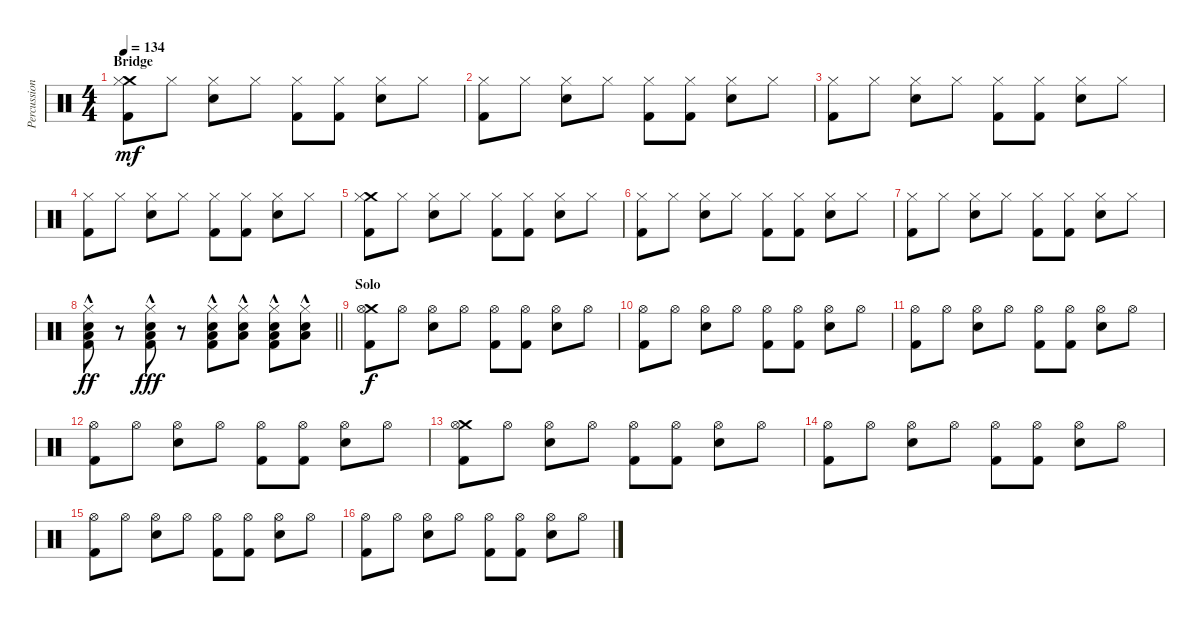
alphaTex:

\track ("Percussion" "Percussion") {instrument percussion}
\staff {score}
\articulation defaults
\ts (4 4)
\section ("" "Bridge")
\tempo 134
\clef neutral
\ks c
("Crash medium (hit)" "Hi-Hat (closed)" "Kick (hit) 2").8{dy mf} "Hi-Hat (closed)".8 ("Hi-Hat (closed)" "Snare (hit) 2").8 "Hi-Hat (closed)".8 ("Hi-Hat (closed)" "Kick (hit) 2").8 ("Hi-Hat (closed)" "Kick (hit) 2").8 ("Hi-Hat (closed)" "Snare (hit) 2").8 "Hi-Hat (closed)".8 |
("Hi-Hat (closed)" "Kick (hit) 2").8 "Hi-Hat (closed)".8 ("Hi-Hat (closed)" "Snare (hit) 2").8 "Hi-Hat (closed)".8 ("Hi-Hat (closed)" "Kick (hit) 2").8 ("Hi-Hat (closed)" "Kick (hit) 2").8 ("Hi-Hat (closed)" "Snare (hit) 2").8 "Hi-Hat (closed)".8 |
("Hi-Hat (closed)" "Kick (hit) 2").8 "Hi-Hat (closed)".8 ("Hi-Hat (closed)" "Snare (hit) 2").8 "Hi-Hat (closed)".8 ("Hi-Hat (closed)" "Kick (hit) 2").8 ("Hi-Hat (closed)" "Kick (hit) 2").8 ("Hi-Hat (closed)" "Snare (hit) 2").8 "Hi-Hat (closed)".8 |
("Hi-Hat (closed)" "Kick (hit) 2").8 "Hi-Hat (closed)".8 ("Hi-Hat (closed)" "Snare (hit) 2").8 "Hi-Hat (closed)".8 ("Hi-Hat (closed)" "Kick (hit) 2").8 ("Hi-Hat (closed)" "Kick (hit) 2").8 ("Hi-Hat (closed)" "Snare (hit) 2").8 "Hi-Hat (closed)".8 |
("Crash medium (hit)" "Hi-Hat (closed)" "Kick (hit) 2").8 "Hi-Hat (closed)".8 ("Hi-Hat (closed)" "Snare (hit) 2").8 "Hi-Hat (closed)".8 ("Hi-Hat (closed)" "Kick (hit) 2").8 ("Hi-Hat (closed)" "Kick (hit) 2").8 ("Hi-Hat (closed)" "Snare (hit) 2").8 "Hi-Hat (closed)".8 |
("Hi-Hat (closed)" "Kick (hit) 2").8 "Hi-Hat (closed)".8 ("Hi-Hat (closed)" "Snare (hit) 2").8 "Hi-Hat (closed)".8 ("Hi-Hat (closed)" "Kick (hit) 2").8 ("Hi-Hat (closed)" "Kick (hit) 2").8 ("Hi-Hat (closed)" "Snare (hit) 2").8 "Hi-Hat (closed)".8 |
("Hi-Hat (closed)" "Kick (hit) 2").8 "Hi-Hat (closed)".8 ("Hi-Hat (closed)" "Snare (hit) 2").8 "Hi-Hat (closed)".8 ("Hi-Hat (closed)" "Kick (hit) 2").8 ("Hi-Hat (closed)" "Kick (hit) 2").8 ("Hi-Hat (closed)" "Snare (hit) 2").8 "Hi-Hat (closed)".8 |
\barLineRight lightlight
("Hi-Hat (closed)"{hac} "Snare (hit) 2"{hac} "Low Floor Tom (hit)"{hac} "Kick (hit) 2"{hac}).8{dy ff} r.8 ("Hi-Hat (closed)"{hac} "Snare (hit) 2"{hac} "Low Floor Tom (hit)"{hac} "Kick (hit) 2"{hac}).8{dy fff} r.8 ("Hi-Hat (closed)"{hac} "Snare (hit) 2"{hac} "Low Floor Tom (hit)"{hac} "Kick (hit) 2"{hac}).8 ("Hi-Hat (closed)"{hac} "Snare (hit) 2"{hac} "Low Floor Tom (hit)"{hac}).8 ("Hi-Hat (closed)"{hac} "Snare (hit) 2"{hac} "Low Floor Tom (hit)"{hac} "Kick (hit) 2"{hac}).8 ("Hi-Hat (closed)"{hac} "Snare (hit) 2"{hac} "Low Floor Tom (hit)"{hac}).8 |
\section ("" "Solo")
("Crash medium (hit)" "Hi-Hat (open)" "Kick (hit) 2").8{dy f} "Hi-Hat (open)".8 ("Hi-Hat (open)" "Snare (hit) 2").8 "Hi-Hat (open)".8 ("Hi-Hat (open)" "Kick (hit) 2").8 ("Hi-Hat (open)" "Kick (hit) 2").8 ("Hi-Hat (open)" "Snare (hit) 2").8 "Hi-Hat (open)".8 |
("Hi-Hat (open)" "Kick (hit) 2").8 "Hi-Hat (open)".8 ("Hi-Hat (open)" "Snare (hit) 2").8 "Hi-Hat (open)".8 ("Hi-Hat (open)" "Kick (hit) 2").8 ("Hi-Hat (open)" "Kick (hit) 2").8 ("Hi-Hat (open)" "Snare (hit) 2").8 "Hi-Hat (open)".8 |
("Hi-Hat (open)" "Kick (hit) 2").8 "Hi-Hat (open)".8 ("Hi-Hat (open)" "Snare (hit) 2").8 "Hi-Hat (open)".8 ("Hi-Hat (open)" "Kick (hit) 2").8 ("Hi-Hat (open)" "Kick (hit) 2").8 ("Hi-Hat (open)" "Snare (hit) 2").8 "Hi-Hat (open)".8 |
("Hi-Hat (open)" "Kick (hit) 2").8 "Hi-Hat (open)".8 ("Hi-Hat (open)" "Snare (hit) 2").8 "Hi-Hat (open)".8 ("Hi-Hat (open)" "Kick (hit) 2").8 ("Hi-Hat (open)" "Kick (hit) 2").8 ("Hi-Hat (open)" "Snare (hit) 2").8 "Hi-Hat (open)".8 |
("Crash medium (hit)" "Hi-Hat (open)" "Kick (hit) 2").8 "Hi-Hat (open)".8 ("Hi-Hat (open)" "Snare (hit) 2").8 "Hi-Hat (open)".8 ("Hi-Hat (open)" "Kick (hit) 2").8 ("Hi-Hat (open)" "Kick (hit) 2").8 ("Hi-Hat (open)" "Snare (hit) 2").8 "Hi-Hat (open)".8 |
("Hi-Hat (open)" "Kick (hit) 2").8 "Hi-Hat (open)".8 ("Hi-Hat (open)" "Snare (hit) 2").8 "Hi-Hat (open)".8 ("Hi-Hat (open)" "Kick (hit) 2").8 ("Hi-Hat (open)" "Kick (hit) 2").8 ("Hi-Hat (open)" "Snare (hit) 2").8 "Hi-Hat (open)".8 |
("Hi-Hat (open)" "Kick (hit) 2").8 "Hi-Hat (open)".8 ("Hi-Hat (open)" "Snare (hit) 2").8 "Hi-Hat (open)".8 ("Hi-Hat (open)" "Kick (hit) 2").8 ("Hi-Hat (open)" "Kick (hit) 2").8 ("Hi-Hat (open)" "Snare (hit) 2").8 "Hi-Hat (open)".8 |
("Hi-Hat (open)" "Kick (hit) 2").8 "Hi-Hat (open)".8 ("Hi-Hat (open)" "Snare (hit) 2").8 "Hi-Hat (open)".8 ("Hi-Hat (open)" "Kick (hit) 2").8 ("Hi-Hat (open)" "Kick (hit) 2").8 ("Hi-Hat (open)" "Snare (hit) 2").8 "Hi-Hat (open)".8
